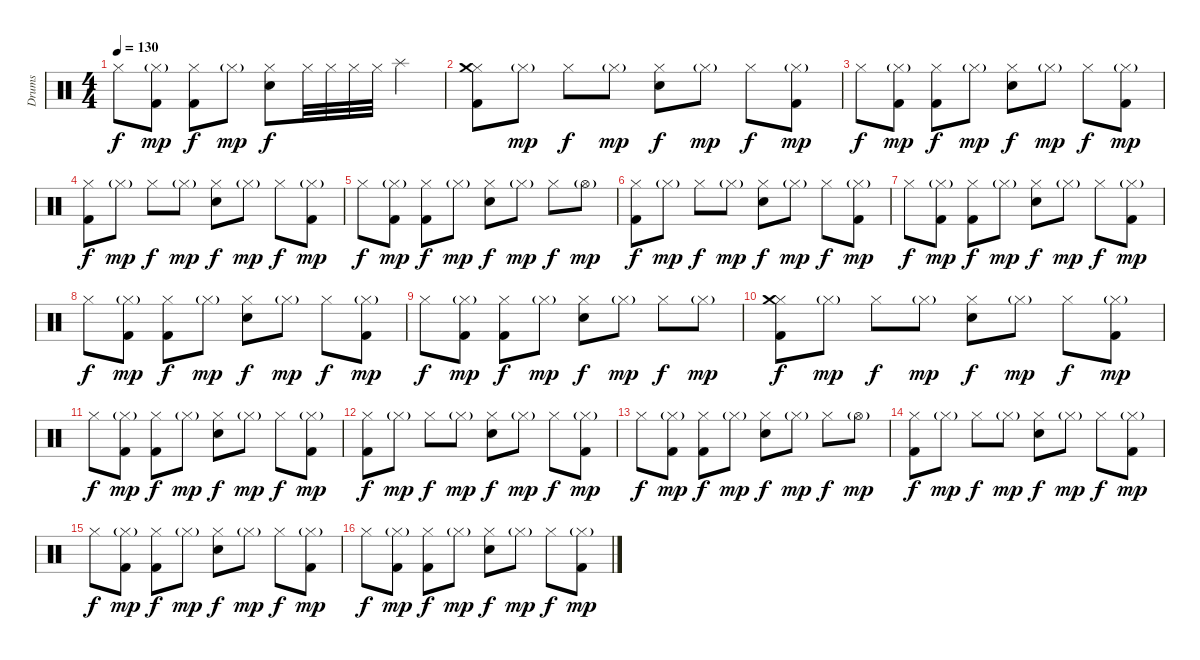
\track ("Drums" "Drums") {instrument percussion}
\staff {score}
\articulation defaults
\ts (4 4)
\tempo 130
\clef neutral
\ks c "Hi-Hat (closed)".8{dy f}
("Hi-Hat (closed)"{g} "Kick (hit) 2").8{dy mp} ("Hi-Hat (closed)" "Kick (hit) 2").8{dy f} "Hi-Hat (closed)"{g}.8{dy mp} ("Hi-Hat (closed)" "Electric Snare (hit)").8{dy f} "Hi-Hat (closed)".32 "Hi-Hat (closed)".32 "Hi-Hat (closed)".32 "Hi-Hat (closed)".32 "Splash (hit)".4 |
("Hi-Hat (closed)" "Crash medium (hit)" "Kick (hit) 2").8 "Hi-Hat (closed)"{g}.8{dy mp} "Hi-Hat (closed)".8{dy f} "Hi-Hat (closed)"{g}.8{dy mp} ("Hi-Hat (closed)" "Electric Snare (hit)").8{dy f} "Hi-Hat (closed)"{g}.8{dy mp} "Hi-Hat (closed)".8{dy f} ("Hi-Hat (closed)"{g} "Kick (hit) 2").8{dy mp} |
"Hi-Hat (closed)".8{dy f} ("Hi-Hat (closed)"{g} "Kick (hit) 2").8{dy mp} ("Hi-Hat (closed)" "Kick (hit) 2").8{dy f} "Hi-Hat (closed)"{g}.8{dy mp} ("Hi-Hat (closed)" "Electric Snare (hit)").8{dy f} "Hi-Hat (closed)"{g}.8{dy mp} "Hi-Hat (closed)".8{dy f} ("Hi-Hat (closed)"{g} "Kick (hit) 2").8{dy mp} |
("Hi-Hat (closed)" "Kick (hit) 2").8{dy f} "Hi-Hat (closed)"{g}.8{dy mp} "Hi-Hat (closed)".8{dy f} "Hi-Hat (closed)"{g}.8{dy mp} ("Hi-Hat (closed)" "Electric Snare (hit)").8{dy f} "Hi-Hat (closed)"{g}.8{dy mp} "Hi-Hat (closed)".8{dy f} ("Hi-Hat (closed)"{g} "Kick (hit) 2").8{dy mp} |
"Hi-Hat (closed)".8{dy f} ("Hi-Hat (closed)"{g} "Kick (hit) 2").8{dy mp} ("Hi-Hat (closed)" "Kick (hit) 2").8{dy f} "Hi-Hat (closed)"{g}.8{dy mp} ("Hi-Hat (closed)" "Electric Snare (hit)").8{dy f} "Hi-Hat (closed)"{g}.8{dy mp} "Hi-Hat (closed)".8{dy f} "Hi-Hat (open)"{g}.8{dy mp} |
("Hi-Hat (closed)" "Kick (hit) 2").8{dy f} "Hi-Hat (closed)"{g}.8{dy mp} "Hi-Hat (closed)".8{dy f} "Hi-Hat (closed)"{g}.8{dy mp} ("Hi-Hat (closed)" "Electric Snare (hit)").8{dy f} "Hi-Hat (closed)"{g}.8{dy mp} "Hi-Hat (closed)".8{dy f} ("Hi-Hat (closed)"{g} "Kick (hit) 2").8{dy mp} |
"Hi-Hat (closed)".8{dy f} ("Hi-Hat (closed)"{g} "Kick (hit) 2").8{dy mp} ("Hi-Hat (closed)" "Kick (hit) 2").8{dy f} "Hi-Hat (closed)"{g}.8{dy mp} ("Hi-Hat (closed)" "Electric Snare (hit)").8{dy f} "Hi-Hat (closed)"{g}.8{dy mp} "Hi-Hat (closed)".8{dy f} ("Hi-Hat (closed)"{g} "Kick (hit) 2").8{dy mp} |
"Hi-Hat (closed)".8{dy f} ("Hi-Hat (closed)"{g} "Kick (hit) 2").8{dy mp} ("Hi-Hat (closed)" "Kick (hit) 2").8{dy f} "Hi-Hat (closed)"{g}.8{dy mp} ("Hi-Hat (closed)" "Electric Snare (hit)").8{dy f} "Hi-Hat (closed)"{g}.8{dy mp} "Hi-Hat (closed)".8{dy f} ("Hi-Hat (closed)"{g} "Kick (hit) 2").8{dy mp} |
"Hi-Hat (closed)".8{dy f} ("Hi-Hat (closed)"{g} "Kick (hit) 2").8{dy mp} ("Hi-Hat (closed)" "Kick (hit) 2").8{dy f} "Hi-Hat (closed)"{g}.8{dy mp} ("Hi-Hat (closed)" "Electric Snare (hit)").8{dy f} "Hi-Hat (closed)"{g}.8{dy mp} "Hi-Hat (closed)".8{dy f} "Hi-Hat (closed)"{g}.8{dy mp} |
("Hi-Hat (closed)" "Crash medium (hit)" "Kick (hit) 2").8{dy f} "Hi-Hat (closed)"{g}.8{dy mp} "Hi-Hat (closed)".8{dy f} "Hi-Hat (closed)"{g}.8{dy mp} ("Hi-Hat (closed)" "Electric Snare (hit)").8{dy f} "Hi-Hat (closed)"{g}.8{dy mp} "Hi-Hat (closed)".8{dy f} ("Hi-Hat (closed)"{g} "Kick (hit) 2").8{dy mp} |
"Hi-Hat (closed)".8{dy f} ("Hi-Hat (closed)"{g} "Kick (hit) 2").8{dy mp} ("Hi-Hat (closed)" "Kick (hit) 2").8{dy f} "Hi-Hat (closed)"{g}.8{dy mp} ("Hi-Hat (closed)" "Electric Snare (hit)").8{dy f} "Hi-Hat (closed)"{g}.8{dy mp} "Hi-Hat (closed)".8{dy f} ("Hi-Hat (closed)"{g} "Kick (hit) 2").8{dy mp} |
("Hi-Hat (closed)" "Kick (hit) 2").8{dy f} "Hi-Hat (closed)"{g}.8{dy mp} "Hi-Hat (closed)".8{dy f} "Hi-Hat (closed)"{g}.8{dy mp} ("Hi-Hat (closed)" "Electric Snare (hit)").8{dy f} "Hi-Hat (closed)"{g}.8{dy mp} "Hi-Hat (closed)".8{dy f} ("Hi-Hat (closed)"{g} "Kick (hit) 2").8{dy mp} |
"Hi-Hat (closed)".8{dy f} ("Hi-Hat (closed)"{g} "Kick (hit) 2").8{dy mp} ("Hi-Hat (closed)" "Kick (hit) 2").8{dy f} "Hi-Hat (closed)"{g}.8{dy mp} ("Hi-Hat (closed)" "Electric Snare (hit)").8{dy f} "Hi-Hat (closed)"{g}.8{dy mp} "Hi-Hat (closed)".8{dy f} "Hi-Hat (open)"{g}.8{dy mp} |
("Hi-Hat (closed)" "Kick (hit) 2").8{dy f} "Hi-Hat (closed)"{g}.8{dy mp} "Hi-Hat (closed)".8{dy f} "Hi-Hat (closed)"{g}.8{dy mp} ("Hi-Hat (closed)" "Electric Snare (hit)").8{dy f} "Hi-Hat (closed)"{g}.8{dy mp} "Hi-Hat (closed)".8{dy f} ("Hi-Hat (closed)"{g} "Kick (hit) 2").8{dy mp} |
"Hi-Hat (closed)".8{dy f} ("Hi-Hat (closed)"{g} "Kick (hit) 2").8{dy mp} ("Hi-Hat (closed)" "Kick (hit) 2").8{dy f} "Hi-Hat (closed)"{g}.8{dy mp} ("Hi-Hat (closed)" "Electric Snare (hit)").8{dy f} "Hi-Hat (closed)"{g}.8{dy mp} "Hi-Hat (closed)".8{dy f} ("Hi-Hat (closed)"{g} "Kick (hit) 2").8{dy mp} |
"Hi-Hat (closed)".8{dy f} ("Hi-Hat (closed)"{g} "Kick (hit) 2").8{dy mp} ("Hi-Hat (closed)" "Kick (hit) 2").8{dy f} "Hi-Hat (closed)"{g}.8{dy mp} ("Hi-Hat (closed)" "Electric Snare (hit)").8{dy f} "Hi-Hat (closed)"{g}.8{dy mp} "Hi-Hat (closed)".8{dy f} ("Hi-Hat (closed)"{g} "Kick (hit) 2").8{dy mp}
